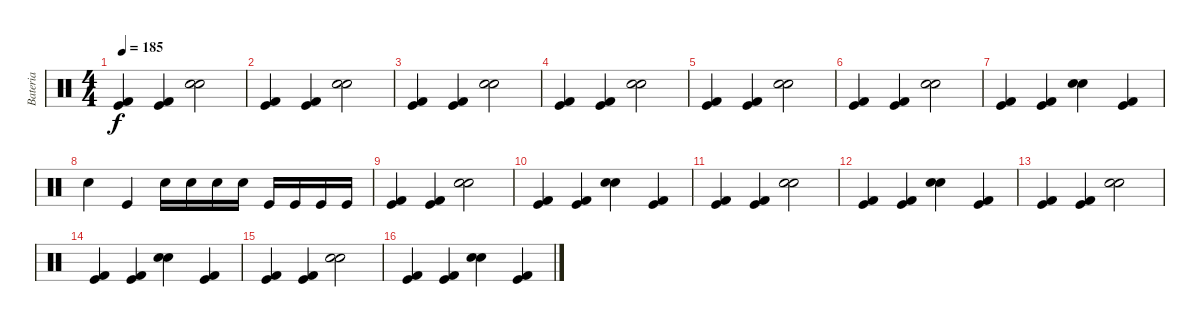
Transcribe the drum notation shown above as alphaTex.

\track ("Bateria" "Bateria") {instrument percussion}
\staff {score}
\articulation defaults
\ts (4 4)
\tempo 185
\clef neutral
\ks c
("Kick (hit) 2" "Kick (hit)").4{dy f} ("Kick (hit) 2" "Kick (hit)").4 ("Electric Snare (hit)" "Snare (hit) 2").2 |
("Kick (hit) 2" "Kick (hit)").4 ("Kick (hit) 2" "Kick (hit)").4 ("Electric Snare (hit)" "Snare (hit) 2").2 |
("Kick (hit) 2" "Kick (hit)").4 ("Kick (hit) 2" "Kick (hit)").4 ("Electric Snare (hit)" "Snare (hit) 2").2 |
("Kick (hit) 2" "Kick (hit)").4 ("Kick (hit) 2" "Kick (hit)").4 ("Electric Snare (hit)" "Snare (hit) 2").2 |
("Kick (hit) 2" "Kick (hit)").4 ("Kick (hit) 2" "Kick (hit)").4 ("Electric Snare (hit)" "Snare (hit) 2").2 |
("Kick (hit) 2" "Kick (hit)").4 ("Kick (hit) 2" "Kick (hit)").4 ("Electric Snare (hit)" "Snare (hit) 2").2 |
("Kick (hit) 2" "Kick (hit)").4 ("Kick (hit) 2" "Kick (hit)").4 ("Electric Snare (hit)" "Snare (hit) 2").4 ("Kick (hit) 2" "Kick (hit)").4 |
"Electric Snare (hit)".4 "Kick (hit)".4 "Electric Snare (hit)".16 "Electric Snare (hit)".16 "Electric Snare (hit)".16 "Electric Snare (hit)".16 "Kick (hit)".16 "Kick (hit)".16 "Kick (hit)".16 "Kick (hit)".16 |
("Kick (hit) 2" "Kick (hit)").4 ("Kick (hit) 2" "Kick (hit)").4 ("Electric Snare (hit)" "Snare (hit) 2").2 |
("Kick (hit) 2" "Kick (hit)").4 ("Kick (hit) 2" "Kick (hit)").4 ("Electric Snare (hit)" "Snare (hit) 2").4 ("Kick (hit) 2" "Kick (hit)").4 |
("Kick (hit) 2" "Kick (hit)").4 ("Kick (hit) 2" "Kick (hit)").4 ("Electric Snare (hit)" "Snare (hit) 2").2 |
("Kick (hit) 2" "Kick (hit)").4 ("Kick (hit) 2" "Kick (hit)").4 ("Electric Snare (hit)" "Snare (hit) 2").4 ("Kick (hit) 2" "Kick (hit)").4 |
("Kick (hit) 2" "Kick (hit)").4 ("Kick (hit) 2" "Kick (hit)").4 ("Electric Snare (hit)" "Snare (hit) 2").2 |
("Kick (hit) 2" "Kick (hit)").4 ("Kick (hit) 2" "Kick (hit)").4 ("Electric Snare (hit)" "Snare (hit) 2").4 ("Kick (hit) 2" "Kick (hit)").4 |
("Kick (hit) 2" "Kick (hit)").4 ("Kick (hit) 2" "Kick (hit)").4 ("Electric Snare (hit)" "Snare (hit) 2").2 |
("Kick (hit) 2" "Kick (hit)").4 ("Kick (hit) 2" "Kick (hit)").4 ("Electric Snare (hit)" "Snare (hit) 2").4 ("Kick (hit) 2" "Kick (hit)").4
